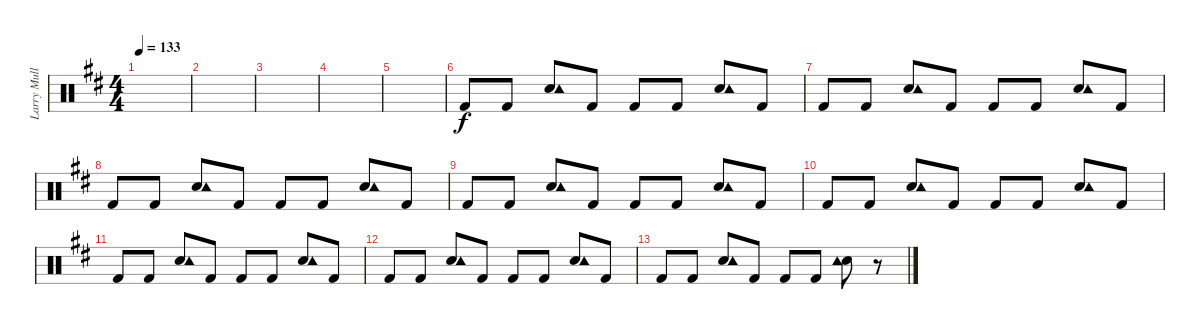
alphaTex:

\track ("Larry Mullen Jr." "Larry Mull") {instrument percussion}
\staff {score}
\articulation defaults
\ts (4 4)
\tempo 133
\clef neutral
\ks d
|
|
|
|
|
"Kick (hit) 2".8{volume 6} "Kick (hit) 2".8 ("Snare (hit) 2" "Tambourine (hit)").8 "Kick (hit) 2".8 "Kick (hit) 2".8 "Kick (hit) 2".8 ("Snare (hit) 2" "Tambourine (hit)").8 "Kick (hit) 2".8 |
"Kick (hit) 2".8{volume 8} "Kick (hit) 2".8 ("Snare (hit) 2" "Tambourine (hit)").8 "Kick (hit) 2".8 "Kick (hit) 2".8 "Kick (hit) 2".8 ("Snare (hit) 2" "Tambourine (hit)").8 "Kick (hit) 2".8 |
"Kick (hit) 2".8{volume 10} "Kick (hit) 2".8 ("Snare (hit) 2" "Tambourine (hit)").8 "Kick (hit) 2".8 "Kick (hit) 2".8 "Kick (hit) 2".8 ("Snare (hit) 2" "Tambourine (hit)").8 "Kick (hit) 2".8 |
"Kick (hit) 2".8{volume 12} "Kick (hit) 2".8 ("Snare (hit) 2" "Tambourine (hit)").8 "Kick (hit) 2".8 "Kick (hit) 2".8 "Kick (hit) 2".8 ("Snare (hit) 2" "Tambourine (hit)").8 "Kick (hit) 2".8 |
"Kick (hit) 2".8 "Kick (hit) 2".8 ("Snare (hit) 2" "Tambourine (hit)").8 "Kick (hit) 2".8 "Kick (hit) 2".8 "Kick (hit) 2".8 ("Snare (hit) 2" "Tambourine (hit)").8 "Kick (hit) 2".8 |
"Kick (hit) 2".8 "Kick (hit) 2".8 ("Snare (hit) 2" "Tambourine (hit)").8 "Kick (hit) 2".8 "Kick (hit) 2".8 "Kick (hit) 2".8 ("Snare (hit) 2" "Tambourine (hit)").8 "Kick (hit) 2".8 |
"Kick (hit) 2".8 "Kick (hit) 2".8 ("Snare (hit) 2" "Tambourine (hit)").8 "Kick (hit) 2".8 "Kick (hit) 2".8 "Kick (hit) 2".8 ("Snare (hit) 2" "Tambourine (hit)").8 "Kick (hit) 2".8 |
"Kick (hit) 2".8 "Kick (hit) 2".8 ("Snare (hit) 2" "Tambourine (hit)").8 "Kick (hit) 2".8 "Kick (hit) 2".8 "Kick (hit) 2".8 ("Snare (hit) 2" "Tambourine (hit)").8 r.8
